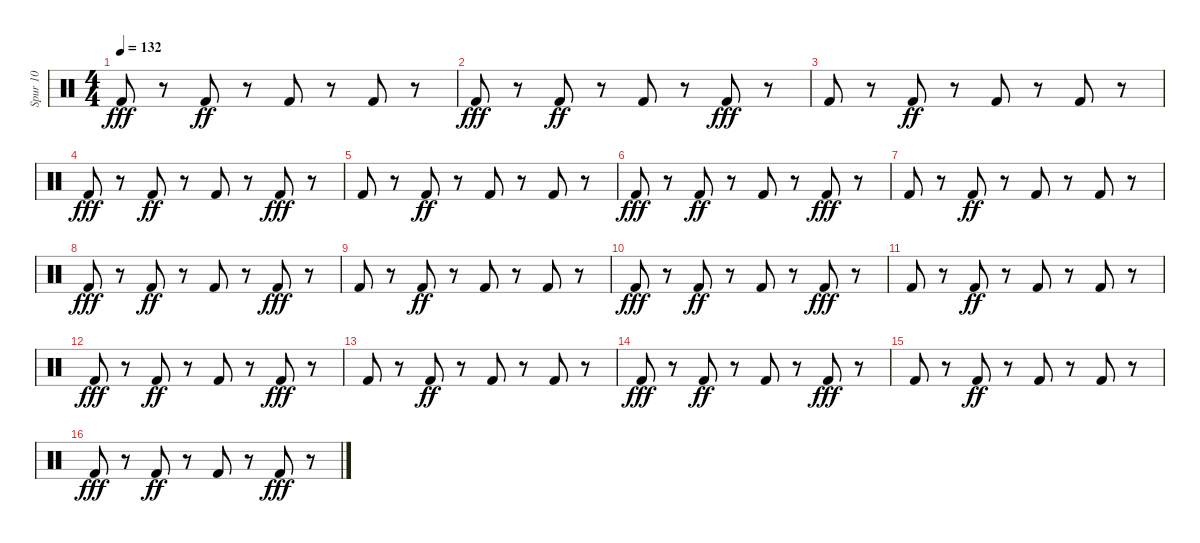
\track ("Spur 10" "Spur 10") {instrument percussion}
\staff {score}
\articulation defaults
\ts (4 4)
\tempo 132
\clef neutral
\ks c "Kick (hit) 2".8{dy fff}
r.8 "Kick (hit) 2".8{dy ff} r.8 "Kick (hit) 2".8 r.8 "Kick (hit) 2".8 r.8 |
"Kick (hit) 2".8{dy fff} r.8 "Kick (hit) 2".8{dy ff} r.8 "Kick (hit) 2".8 r.8 "Kick (hit) 2".8{dy fff} r.8 |
"Kick (hit) 2".8 r.8 "Kick (hit) 2".8{dy ff} r.8 "Kick (hit) 2".8 r.8 "Kick (hit) 2".8 r.8 |
"Kick (hit) 2".8{dy fff} r.8 "Kick (hit) 2".8{dy ff} r.8 "Kick (hit) 2".8 r.8 "Kick (hit) 2".8{dy fff} r.8 |
"Kick (hit) 2".8 r.8 "Kick (hit) 2".8{dy ff} r.8 "Kick (hit) 2".8 r.8 "Kick (hit) 2".8 r.8 |
"Kick (hit) 2".8{dy fff} r.8 "Kick (hit) 2".8{dy ff} r.8 "Kick (hit) 2".8 r.8 "Kick (hit) 2".8{dy fff} r.8 |
"Kick (hit) 2".8 r.8 "Kick (hit) 2".8{dy ff} r.8 "Kick (hit) 2".8 r.8 "Kick (hit) 2".8 r.8 |
"Kick (hit) 2".8{dy fff} r.8 "Kick (hit) 2".8{dy ff} r.8 "Kick (hit) 2".8 r.8 "Kick (hit) 2".8{dy fff} r.8 |
"Kick (hit) 2".8 r.8 "Kick (hit) 2".8{dy ff} r.8 "Kick (hit) 2".8 r.8 "Kick (hit) 2".8 r.8 |
"Kick (hit) 2".8{dy fff} r.8 "Kick (hit) 2".8{dy ff} r.8 "Kick (hit) 2".8 r.8 "Kick (hit) 2".8{dy fff} r.8 |
"Kick (hit) 2".8 r.8 "Kick (hit) 2".8{dy ff} r.8 "Kick (hit) 2".8 r.8 "Kick (hit) 2".8 r.8 |
"Kick (hit) 2".8{dy fff} r.8 "Kick (hit) 2".8{dy ff} r.8 "Kick (hit) 2".8 r.8 "Kick (hit) 2".8{dy fff} r.8 |
"Kick (hit) 2".8 r.8 "Kick (hit) 2".8{dy ff} r.8 "Kick (hit) 2".8 r.8 "Kick (hit) 2".8 r.8 |
"Kick (hit) 2".8{dy fff} r.8 "Kick (hit) 2".8{dy ff} r.8 "Kick (hit) 2".8 r.8 "Kick (hit) 2".8{dy fff} r.8 |
"Kick (hit) 2".8 r.8 "Kick (hit) 2".8{dy ff} r.8 "Kick (hit) 2".8 r.8 "Kick (hit) 2".8 r.8 |
"Kick (hit) 2".8{dy fff} r.8 "Kick (hit) 2".8{dy ff} r.8 "Kick (hit) 2".8 r.8 "Kick (hit) 2".8{dy fff} r.8
